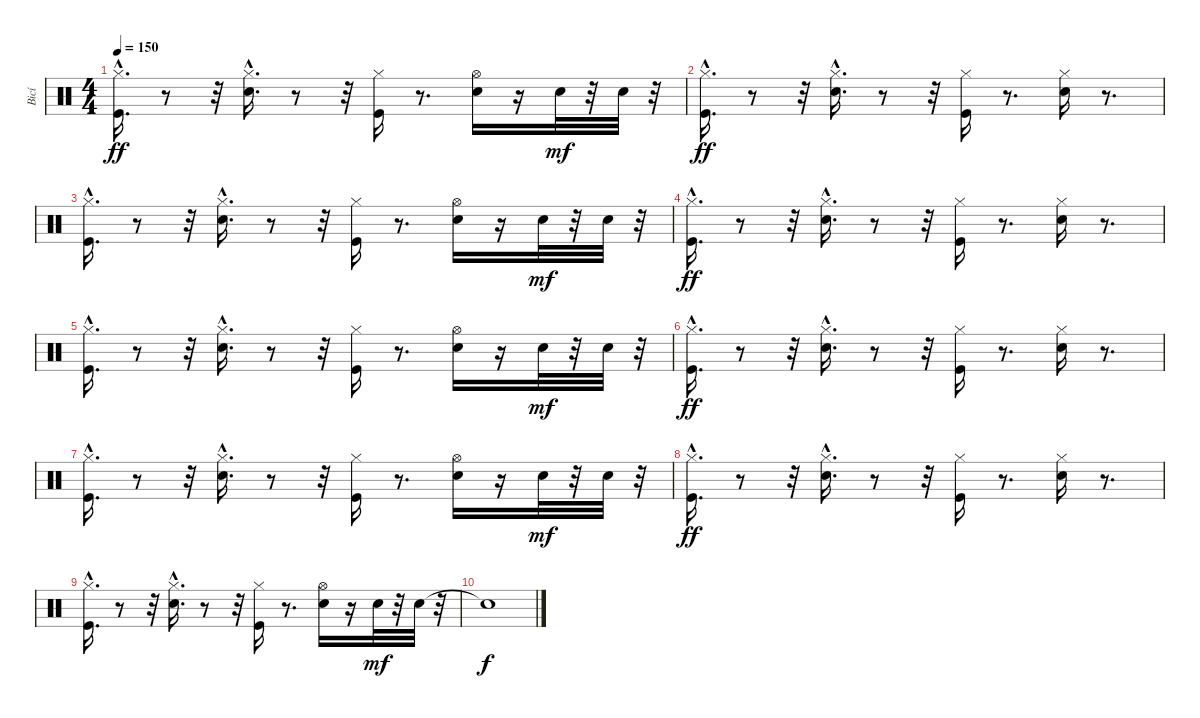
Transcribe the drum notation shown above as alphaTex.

\track ("Bicí" "Bicí") {instrument percussion}
\staff {score}
\articulation defaults
\ts (4 4)
\tempo 150
\clef neutral
\ks c
("Hi-Hat (closed)"{hac} "Kick (hit)").16{d dy ff} r.8 r.32 ("Hi-Hat (closed)"{hac} "Snare (hit) 2").16{d} r.8 r.32 ("Kick (hit)" "Hi-Hat (closed)").16 r.8{d} ("Snare (hit) 2" "Hi-Hat (open)").16 r.16 "Snare (hit) 2".32{dy mf} r.32 "Snare (hit) 2".32 r.32 |
("Hi-Hat (closed)"{hac} "Kick (hit)").16{d dy ff} r.8 r.32 ("Hi-Hat (closed)"{hac} "Snare (hit) 2").16{d} r.8 r.32 ("Kick (hit)" "Hi-Hat (closed)").16 r.8{d} ("Snare (hit) 2" "Hi-Hat (closed)").16 r.8{d} |
("Hi-Hat (closed)"{hac} "Kick (hit)").16{d} r.8 r.32 ("Hi-Hat (closed)"{hac} "Snare (hit) 2").16{d} r.8 r.32 ("Kick (hit)" "Hi-Hat (closed)").16 r.8{d} ("Snare (hit) 2" "Hi-Hat (open)").16 r.16 "Snare (hit) 2".32{dy mf} r.32 "Snare (hit) 2".32 r.32 |
("Hi-Hat (closed)"{hac} "Kick (hit)").16{d dy ff} r.8 r.32 ("Hi-Hat (closed)"{hac} "Snare (hit) 2").16{d} r.8 r.32 ("Kick (hit)" "Hi-Hat (closed)").16 r.8{d} ("Snare (hit) 2" "Hi-Hat (closed)").16 r.8{d} |
("Hi-Hat (closed)"{hac} "Kick (hit)").16{d} r.8 r.32 ("Hi-Hat (closed)"{hac} "Snare (hit) 2").16{d} r.8 r.32 ("Kick (hit)" "Hi-Hat (closed)").16 r.8{d} ("Snare (hit) 2" "Hi-Hat (open)").16 r.16 "Snare (hit) 2".32{dy mf} r.32 "Snare (hit) 2".32 r.32 |
("Hi-Hat (closed)"{hac} "Kick (hit)").16{d dy ff} r.8 r.32 ("Hi-Hat (closed)"{hac} "Snare (hit) 2").16{d} r.8 r.32 ("Kick (hit)" "Hi-Hat (closed)").16 r.8{d} ("Snare (hit) 2" "Hi-Hat (closed)").16 r.8{d} |
("Hi-Hat (closed)"{hac} "Kick (hit)").16{d} r.8 r.32 ("Hi-Hat (closed)"{hac} "Snare (hit) 2").16{d} r.8 r.32 ("Kick (hit)" "Hi-Hat (closed)").16 r.8{d} ("Snare (hit) 2" "Hi-Hat (open)").16 r.16 "Snare (hit) 2".32{dy mf} r.32 "Snare (hit) 2".32 r.32 |
("Hi-Hat (closed)"{hac} "Kick (hit)").16{d dy ff} r.8 r.32 ("Hi-Hat (closed)"{hac} "Snare (hit) 2").16{d} r.8 r.32 ("Kick (hit)" "Hi-Hat (closed)").16 r.8{d} ("Snare (hit) 2" "Hi-Hat (closed)").16 r.8{d} |
("Hi-Hat (closed)"{hac} "Kick (hit)").16{d} r.8 r.32 ("Hi-Hat (closed)"{hac} "Snare (hit) 2").16{d} r.8 r.32 ("Kick (hit)" "Hi-Hat (closed)").16 r.8{d} ("Snare (hit) 2" "Hi-Hat (open)").16 r.16 "Snare (hit) 2".32{dy mf} r.32 "Snare (hit) 2".32 r.32 |
"Snare (hit)"{t}.1{dy f}
